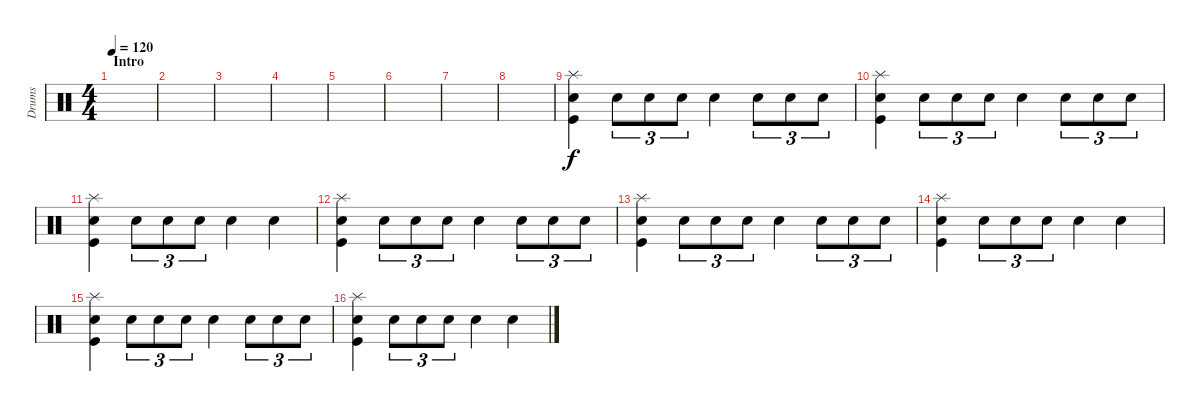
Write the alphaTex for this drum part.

\track ("Drums" "Drums") {instrument percussion}
\staff {score}
\articulation defaults
\ts (4 4)
\section ("" "Intro")
\tempo 120
\clef neutral
\ks c
|
|
|
|
|
|
|
|
("Splash (hit)" "Snare (hit) 2" "Kick (hit)").4 "Snare (hit) 2".8{tu (3 2)} "Snare (hit) 2".8{tu (3 2)} "Snare (hit) 2".8{tu (3 2)} "Snare (hit) 2".4 "Snare (hit) 2".8{tu (3 2)} "Snare (hit) 2".8{tu (3 2)} "Snare (hit) 2".8{tu (3 2)} |
("Splash (hit)" "Snare (hit) 2" "Kick (hit)").4 "Snare (hit) 2".8{tu (3 2)} "Snare (hit) 2".8{tu (3 2)} "Snare (hit) 2".8{tu (3 2)} "Snare (hit) 2".4 "Snare (hit) 2".8{tu (3 2)} "Snare (hit) 2".8{tu (3 2)} "Snare (hit) 2".8{tu (3 2)} |
("Splash (hit)" "Snare (hit) 2" "Kick (hit)").4 "Snare (hit) 2".8{tu (3 2)} "Snare (hit) 2".8{tu (3 2)} "Snare (hit) 2".8{tu (3 2)} "Snare (hit) 2".4 "Snare (hit) 2".4 |
("Splash (hit)" "Snare (hit) 2" "Kick (hit)").4 "Snare (hit) 2".8{tu (3 2)} "Snare (hit) 2".8{tu (3 2)} "Snare (hit) 2".8{tu (3 2)} "Snare (hit) 2".4 "Snare (hit) 2".8{tu (3 2)} "Snare (hit) 2".8{tu (3 2)} "Snare (hit) 2".8{tu (3 2)} |
("Splash (hit)" "Snare (hit) 2" "Kick (hit)").4 "Snare (hit) 2".8{tu (3 2)} "Snare (hit) 2".8{tu (3 2)} "Snare (hit) 2".8{tu (3 2)} "Snare (hit) 2".4 "Snare (hit) 2".8{tu (3 2)} "Snare (hit) 2".8{tu (3 2)} "Snare (hit) 2".8{tu (3 2)} |
("Splash (hit)" "Snare (hit) 2" "Kick (hit)").4 "Snare (hit) 2".8{tu (3 2)} "Snare (hit) 2".8{tu (3 2)} "Snare (hit) 2".8{tu (3 2)} "Snare (hit) 2".4 "Snare (hit) 2".4 |
("Splash (hit)" "Snare (hit) 2" "Kick (hit)").4 "Snare (hit) 2".8{tu (3 2)} "Snare (hit) 2".8{tu (3 2)} "Snare (hit) 2".8{tu (3 2)} "Snare (hit) 2".4 "Snare (hit) 2".8{tu (3 2)} "Snare (hit) 2".8{tu (3 2)} "Snare (hit) 2".8{tu (3 2)} |
("Splash (hit)" "Snare (hit) 2" "Kick (hit)").4 "Snare (hit) 2".8{tu (3 2)} "Snare (hit) 2".8{tu (3 2)} "Snare (hit) 2".8{tu (3 2)} "Snare (hit) 2".4 "Snare (hit) 2".4
